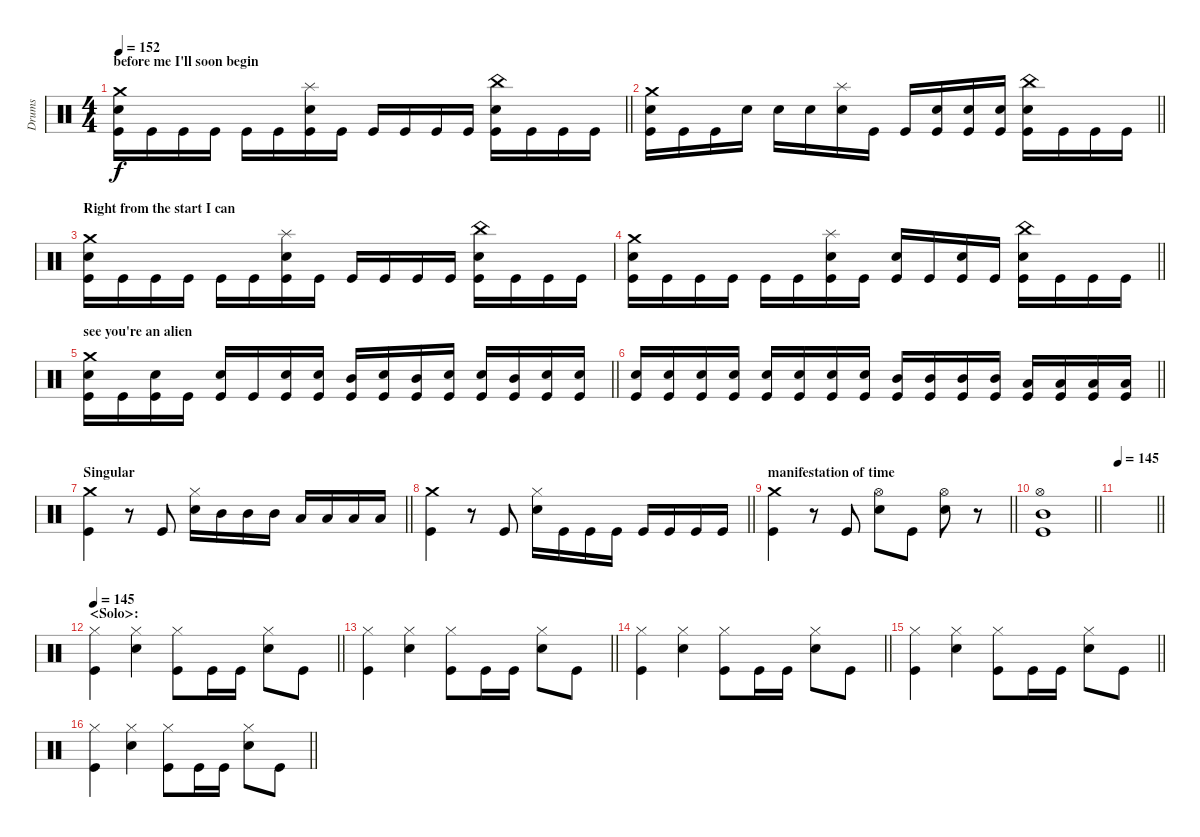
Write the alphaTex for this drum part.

\track ("Drums" "Drums") {instrument percussion}
\staff {score}
\articulation defaults
\ts (4 4)
\section ("" "before me I'll soon begin")
\tempo 152
\clef neutral
\barLineRight lightlight
\ks c
("Crash medium (hit)" "Snare (hit) 2" "Kick (hit)").16{dy f} "Kick (hit)".16 "Kick (hit)".16 "Kick (hit)".16 "Kick (hit)".16 "Kick (hit)".16 ("Splash (hit)" "Snare (hit) 2" "Kick (hit)").16 "Kick (hit)".16 "Kick (hit)".16 "Kick (hit)".16 "Kick (hit)".16 "Kick (hit)".16 ("China (hit)" "Snare (hit) 2" "Kick (hit)").16 "Kick (hit)".16 "Kick (hit)".16 "Kick (hit)".16 |
\barLineRight lightlight
("Crash medium (hit)" "Snare (hit) 2" "Kick (hit)").16 "Kick (hit)".16 "Kick (hit)".16 "Snare (hit) 2".16 "Snare (hit) 2".16 "Snare (hit) 2".16 ("Splash (hit)" "Snare (hit) 2").16 "Kick (hit)".16 "Kick (hit)".16 ("Snare (hit) 2" "Kick (hit)").16 ("Snare (hit) 2" "Kick (hit)").16 ("Snare (hit) 2" "Kick (hit)").16 ("China (hit)" "Snare (hit) 2" "Kick (hit)").16 "Kick (hit)".16 "Kick (hit)".16 "Kick (hit)".16 |
\section ("" "Right from the start I can")
("Crash medium (hit)" "Snare (hit) 2" "Kick (hit)").16 "Kick (hit)".16 "Kick (hit)".16 "Kick (hit)".16 "Kick (hit)".16 "Kick (hit)".16 ("Splash (hit)" "Snare (hit) 2" "Kick (hit)").16 "Kick (hit)".16 "Kick (hit)".16 "Kick (hit)".16 "Kick (hit)".16 "Kick (hit)".16 ("China (hit)" "Snare (hit) 2" "Kick (hit)").16 "Kick (hit)".16 "Kick (hit)".16 "Kick (hit)".16 |
\barLineRight lightlight
("Crash medium (hit)" "Snare (hit) 2" "Kick (hit)").16 "Kick (hit)".16 "Kick (hit)".16 "Kick (hit)".16 "Kick (hit)".16 "Kick (hit)".16 ("Splash (hit)" "Snare (hit) 2" "Kick (hit)").16 "Kick (hit)".16 ("Snare (hit) 2" "Kick (hit)").16 "Kick (hit)".16 ("Snare (hit) 2" "Kick (hit)").16 "Kick (hit)".16 ("China (hit)" "Snare (hit) 2" "Kick (hit)").16 "Kick (hit)".16 "Kick (hit)".16 "Kick (hit)".16 |
\section ("" "see you're an alien")
\barLineRight lightlight
("Crash medium (hit)" "Snare (hit) 2" "Kick (hit)").16 "Kick (hit)".16 ("Snare (hit) 2" "Kick (hit)").16 "Kick (hit)".16 ("Snare (hit) 2" "Kick (hit)").16 "Kick (hit)".16 ("Snare (hit) 2" "Kick (hit)").16 ("Snare (hit) 2" "Kick (hit)").16 ("Mid Tom (hit)" "Kick (hit)").16 ("Snare (hit) 2" "Kick (hit)").16 ("Mid Tom (hit)" "Kick (hit)").16 ("Snare (hit) 2" "Kick (hit)").16 ("Snare (hit) 2" "Kick (hit)").16 ("Mid Tom (hit)" "Kick (hit)").16 ("Snare (hit) 2" "Kick (hit)").16 ("Snare (hit) 2" "Kick (hit)").16 |
\barLineRight lightlight
("Snare (hit) 2" "Kick (hit)").16 ("Snare (hit) 2" "Kick (hit)").16 ("Snare (hit) 2" "Kick (hit)").16 ("Snare (hit) 2" "Kick (hit)").16 ("Snare (hit) 2" "Kick (hit)").16 ("Snare (hit) 2" "Kick (hit)").16 ("Snare (hit) 2" "Kick (hit)").16 ("Snare (hit) 2" "Kick (hit)").16 ("Mid Tom (hit)" "Kick (hit)").16 ("Mid Tom (hit)" "Kick (hit)").16 ("Mid Tom (hit)" "Kick (hit)").16 ("Mid Tom (hit)" "Kick (hit)").16 ("Low Tom (hit)" "Kick (hit)").16 ("Low Tom (hit)" "Kick (hit)").16 ("Low Tom (hit)" "Kick (hit)").16 ("Low Tom (hit)" "Kick (hit)").16 |
\section ("" "Singular ")
\barLineRight lightlight
("Crash medium (hit)" "Kick (hit)").4 r.8 "Kick (hit)".8 ("Hi-Hat (closed)" "Snare (hit) 2").16 "Mid Tom (hit)".16 "Mid Tom (hit)".16 "Mid Tom (hit)".16 "Low Tom (hit)".16 "Low Tom (hit)".16 "Low Tom (hit)".16 "Low Tom (hit)".16 |
\barLineRight lightlight
("Crash medium (hit)" "Kick (hit)").4 r.8 "Kick (hit)".8 ("Hi-Hat (closed)" "Snare (hit) 2").16 "Kick (hit)".16 "Kick (hit)".16 "Kick (hit)".16 "Kick (hit)".16 "Kick (hit)".16 "Kick (hit)".16 "Kick (hit)".16 |
\section ("" "manifestation of time")
\barLineRight lightlight
("Crash medium (hit)" "Kick (hit)").4 r.8 "Kick (hit)".8 ("Hi-Hat (open)" "Snare (hit) 2").8 "Kick (hit)".8 ("Hi-Hat (open)" "Snare (hit) 2").8 r.8 |
\barLineRight lightlight
("Hi-Hat (open)" "Mid Tom (hit)" "Kick (hit)").1 |
\tempo 145
\barLineRight lightlight
|
\section ("" "<Solo>:")
\tempo 145
\barLineRight lightlight
("Hi-Hat (closed)" "Kick (hit)").4 ("Hi-Hat (closed)" "Snare (hit) 2").4 ("Hi-Hat (closed)" "Kick (hit)").8 "Kick (hit)".16 "Kick (hit)".16 ("Hi-Hat (closed)" "Snare (hit) 2").8 "Kick (hit)".8 |
\barLineRight lightlight
("Hi-Hat (closed)" "Kick (hit)").4 ("Hi-Hat (closed)" "Snare (hit) 2").4 ("Hi-Hat (closed)" "Kick (hit)").8 "Kick (hit)".16 "Kick (hit)".16 ("Hi-Hat (closed)" "Snare (hit) 2").8 "Kick (hit)".8 |
\barLineRight lightlight
("Hi-Hat (closed)" "Kick (hit)").4 ("Hi-Hat (closed)" "Snare (hit) 2").4 ("Hi-Hat (closed)" "Kick (hit)").8 "Kick (hit)".16 "Kick (hit)".16 ("Hi-Hat (closed)" "Snare (hit) 2").8 "Kick (hit)".8 |
\barLineRight lightlight
("Hi-Hat (closed)" "Kick (hit)").4 ("Hi-Hat (closed)" "Snare (hit) 2").4 ("Hi-Hat (closed)" "Kick (hit)").8 "Kick (hit)".16 "Kick (hit)".16 ("Hi-Hat (closed)" "Snare (hit) 2").8 "Kick (hit)".8 |
\barLineRight lightlight
("Hi-Hat (closed)" "Kick (hit)").4 ("Hi-Hat (closed)" "Snare (hit) 2").4 ("Hi-Hat (closed)" "Kick (hit)").8 "Kick (hit)".16 "Kick (hit)".16 ("Hi-Hat (closed)" "Snare (hit) 2").8 "Kick (hit)".8
